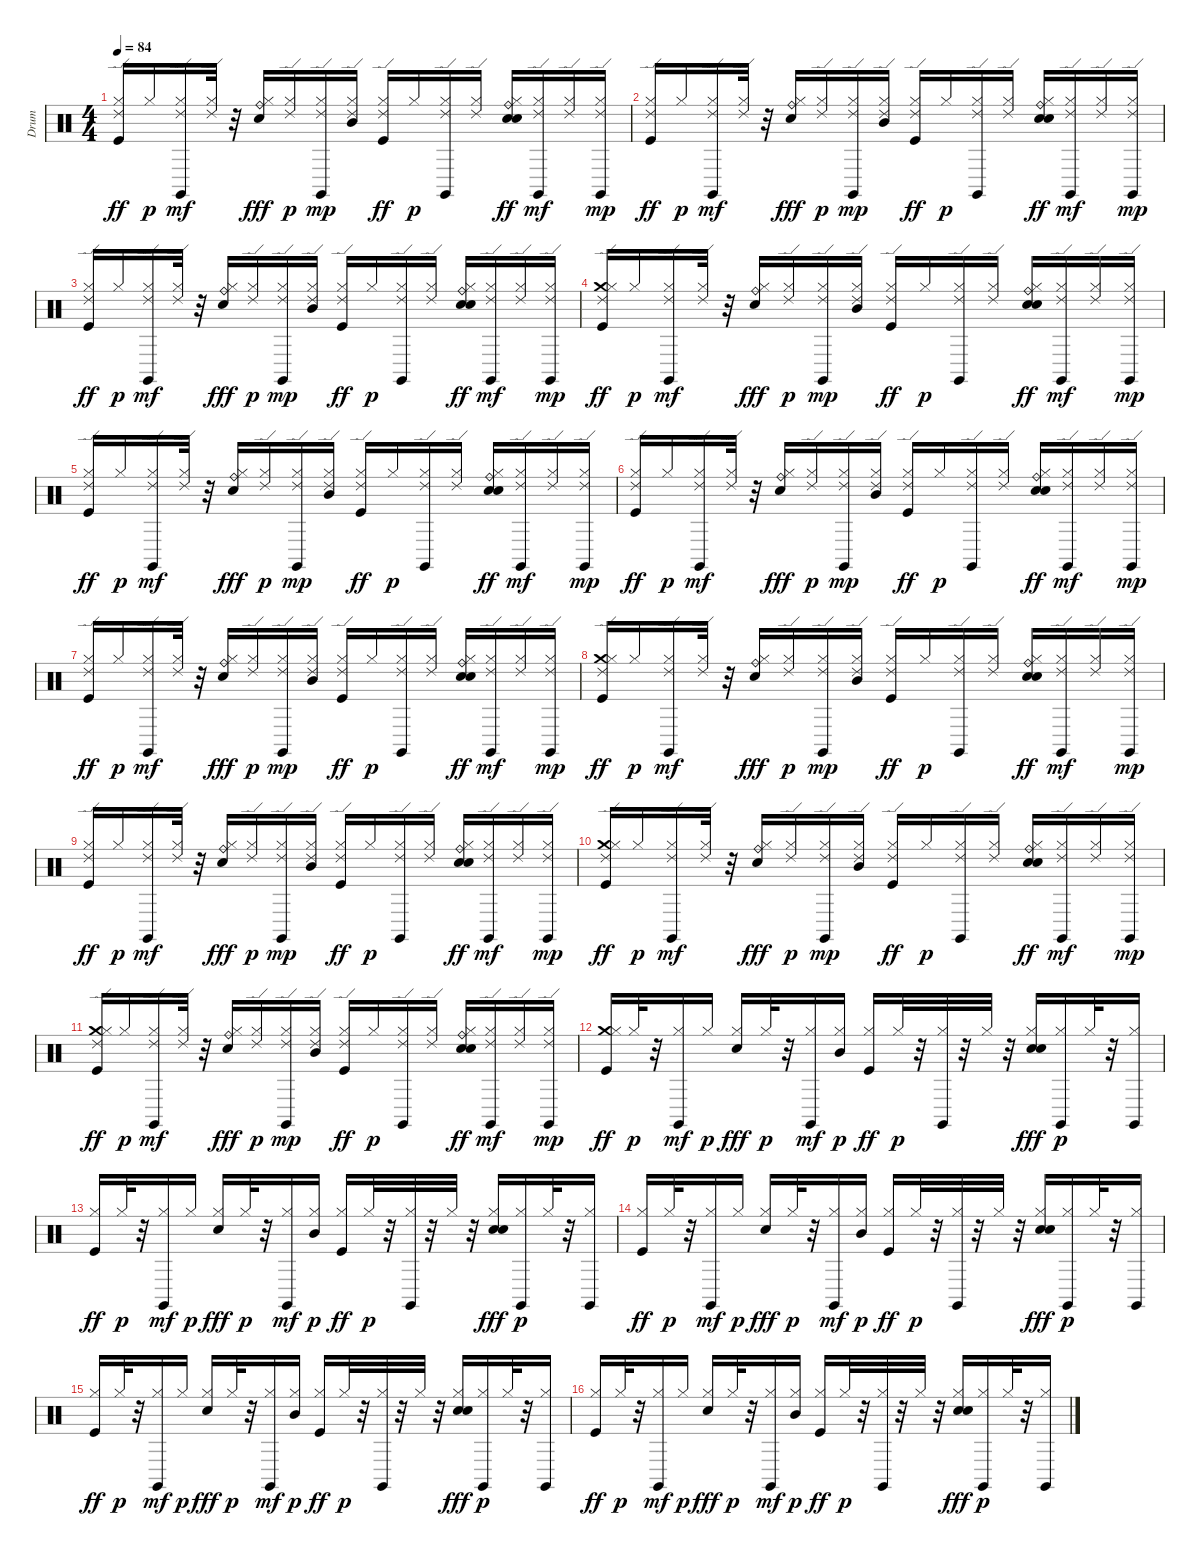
\track ("Drum" "Drum") {instrument percussion}
\staff {score}
\articulation defaults
\ts (4 4)
\tempo 84
\clef neutral
\ks c
("Kick (hit)" "Hi-Hat (closed)" "Ride (edge) 2").16{dy ff} "Hi-Hat (closed)".16{dy p} ("Hi-Hat (closed)" "Claves (hit)" "Ride (edge) 2").16{dy mf} ("Hi-Hat (closed)" "Ride (edge) 2").32 r.32 ("Hi-Hat (closed)" "Snare (hit) 2" "Ride (bell)").16{dy fff} ("Hi-Hat (closed)" "Ride (edge) 2").16{dy p} ("Hi-Hat (closed)" "Claves (hit)" "Ride (edge) 2").16{dy mp} ("Hi-Hat (closed)" "Mid Tom (hit)" "Ride (edge) 2").16 ("Kick (hit)" "Hi-Hat (closed)" "Ride (edge) 2").16{dy ff} "Hi-Hat (closed)".16{dy p} ("Hi-Hat (closed)" "Claves (hit)" "Ride (edge) 2").16 ("Hi-Hat (closed)" "Ride (edge) 2").16 ("Hi-Hat (closed)" "Snare (hit) 2" "Hand Clap (hit)" "Ride (bell)").16{dy ff} ("Hi-Hat (closed)" "Claves (hit)" "Ride (edge) 2").16{dy mf} ("Hi-Hat (closed)" "Ride (edge) 2").16 ("Hi-Hat (closed)" "Claves (hit)" "Ride (edge) 2").16{dy mp} |
("Kick (hit)" "Hi-Hat (closed)" "Ride (edge) 2").16{dy ff} "Hi-Hat (closed)".16{dy p} ("Hi-Hat (closed)" "Claves (hit)" "Ride (edge) 2").16{dy mf} ("Hi-Hat (closed)" "Ride (edge) 2").32 r.32 ("Hi-Hat (closed)" "Snare (hit) 2" "Ride (bell)").16{dy fff} ("Hi-Hat (closed)" "Ride (edge) 2").16{dy p} ("Hi-Hat (closed)" "Claves (hit)" "Ride (edge) 2").16{dy mp} ("Hi-Hat (closed)" "Mid Tom (hit)" "Ride (edge) 2").16 ("Kick (hit)" "Hi-Hat (closed)" "Ride (edge) 2").16{dy ff} "Hi-Hat (closed)".16{dy p} ("Hi-Hat (closed)" "Claves (hit)" "Ride (edge) 2").16 ("Hi-Hat (closed)" "Ride (edge) 2").16 ("Hi-Hat (closed)" "Snare (hit) 2" "Hand Clap (hit)" "Ride (bell)").16{dy ff} ("Hi-Hat (closed)" "Claves (hit)" "Ride (edge) 2").16{dy mf} ("Hi-Hat (closed)" "Ride (edge) 2").16 ("Hi-Hat (closed)" "Claves (hit)" "Ride (edge) 2").16{dy mp} |
("Kick (hit)" "Hi-Hat (closed)" "Ride (edge) 2").16{dy ff} "Hi-Hat (closed)".16{dy p} ("Hi-Hat (closed)" "Claves (hit)" "Ride (edge) 2").16{dy mf} ("Hi-Hat (closed)" "Ride (edge) 2").32 r.32 ("Hi-Hat (closed)" "Snare (hit) 2" "Ride (bell)").16{dy fff} ("Hi-Hat (closed)" "Ride (edge) 2").16{dy p} ("Hi-Hat (closed)" "Claves (hit)" "Ride (edge) 2").16{dy mp} ("Hi-Hat (closed)" "Mid Tom (hit)" "Ride (edge) 2").16 ("Kick (hit)" "Hi-Hat (closed)" "Ride (edge) 2").16{dy ff} "Hi-Hat (closed)".16{dy p} ("Hi-Hat (closed)" "Claves (hit)" "Ride (edge) 2").16 ("Hi-Hat (closed)" "Ride (edge) 2").16 ("Hi-Hat (closed)" "Snare (hit) 2" "Hand Clap (hit)" "Ride (bell)").16{dy ff} ("Hi-Hat (closed)" "Claves (hit)" "Ride (edge) 2").16{dy mf} ("Hi-Hat (closed)" "Ride (edge) 2").16 ("Hi-Hat (closed)" "Claves (hit)" "Ride (edge) 2").16{dy mp} |
("Crash medium (hit)" "Kick (hit)" "Hi-Hat (closed)" "Ride (edge) 2").16{dy ff} "Hi-Hat (closed)".16{dy p} ("Hi-Hat (closed)" "Claves (hit)" "Ride (edge) 2").16{dy mf} ("Hi-Hat (closed)" "Ride (edge) 2").32 r.32 ("Hi-Hat (closed)" "Snare (hit) 2" "Ride (bell)").16{dy fff} ("Hi-Hat (closed)" "Ride (edge) 2").16{dy p} ("Hi-Hat (closed)" "Claves (hit)" "Ride (edge) 2").16{dy mp} ("Hi-Hat (closed)" "Mid Tom (hit)" "Ride (edge) 2").16 ("Kick (hit)" "Hi-Hat (closed)" "Ride (edge) 2").16{dy ff} "Hi-Hat (closed)".16{dy p} ("Hi-Hat (closed)" "Claves (hit)" "Ride (edge) 2").16 ("Hi-Hat (closed)" "Ride (edge) 2").16 ("Hi-Hat (closed)" "Snare (hit) 2" "Hand Clap (hit)" "Ride (bell)").16{dy ff} ("Hi-Hat (closed)" "Claves (hit)" "Ride (edge) 2").16{dy mf} ("Hi-Hat (closed)" "Ride (edge) 2").16 ("Hi-Hat (closed)" "Claves (hit)" "Ride (edge) 2").16{dy mp} |
("Kick (hit)" "Hi-Hat (closed)" "Ride (edge) 2").16{dy ff} "Hi-Hat (closed)".16{dy p} ("Hi-Hat (closed)" "Claves (hit)" "Ride (edge) 2").16{dy mf} ("Hi-Hat (closed)" "Ride (edge) 2").32 r.32 ("Hi-Hat (closed)" "Snare (hit) 2" "Ride (bell)").16{dy fff} ("Hi-Hat (closed)" "Ride (edge) 2").16{dy p} ("Hi-Hat (closed)" "Claves (hit)" "Ride (edge) 2").16{dy mp} ("Hi-Hat (closed)" "Mid Tom (hit)" "Ride (edge) 2").16 ("Kick (hit)" "Hi-Hat (closed)" "Ride (edge) 2").16{dy ff} "Hi-Hat (closed)".16{dy p} ("Hi-Hat (closed)" "Claves (hit)" "Ride (edge) 2").16 ("Hi-Hat (closed)" "Ride (edge) 2").16 ("Hi-Hat (closed)" "Snare (hit) 2" "Hand Clap (hit)" "Ride (bell)").16{dy ff} ("Hi-Hat (closed)" "Claves (hit)" "Ride (edge) 2").16{dy mf} ("Hi-Hat (closed)" "Ride (edge) 2").16 ("Hi-Hat (closed)" "Claves (hit)" "Ride (edge) 2").16{dy mp} |
("Kick (hit)" "Hi-Hat (closed)" "Ride (edge) 2").16{dy ff} "Hi-Hat (closed)".16{dy p} ("Hi-Hat (closed)" "Claves (hit)" "Ride (edge) 2").16{dy mf} ("Hi-Hat (closed)" "Ride (edge) 2").32 r.32 ("Hi-Hat (closed)" "Snare (hit) 2" "Ride (bell)").16{dy fff} ("Hi-Hat (closed)" "Ride (edge) 2").16{dy p} ("Hi-Hat (closed)" "Claves (hit)" "Ride (edge) 2").16{dy mp} ("Hi-Hat (closed)" "Mid Tom (hit)" "Ride (edge) 2").16 ("Kick (hit)" "Hi-Hat (closed)" "Ride (edge) 2").16{dy ff} "Hi-Hat (closed)".16{dy p} ("Hi-Hat (closed)" "Claves (hit)" "Ride (edge) 2").16 ("Hi-Hat (closed)" "Ride (edge) 2").16 ("Hi-Hat (closed)" "Snare (hit) 2" "Hand Clap (hit)" "Ride (bell)").16{dy ff} ("Hi-Hat (closed)" "Claves (hit)" "Ride (edge) 2").16{dy mf} ("Hi-Hat (closed)" "Ride (edge) 2").16 ("Hi-Hat (closed)" "Claves (hit)" "Ride (edge) 2").16{dy mp} |
("Kick (hit)" "Hi-Hat (closed)" "Ride (edge) 2").16{dy ff} "Hi-Hat (closed)".16{dy p} ("Hi-Hat (closed)" "Claves (hit)" "Ride (edge) 2").16{dy mf} ("Hi-Hat (closed)" "Ride (edge) 2").32 r.32 ("Hi-Hat (closed)" "Snare (hit) 2" "Ride (bell)").16{dy fff} ("Hi-Hat (closed)" "Ride (edge) 2").16{dy p} ("Hi-Hat (closed)" "Claves (hit)" "Ride (edge) 2").16{dy mp} ("Hi-Hat (closed)" "Mid Tom (hit)" "Ride (edge) 2").16 ("Kick (hit)" "Hi-Hat (closed)" "Ride (edge) 2").16{dy ff} "Hi-Hat (closed)".16{dy p} ("Hi-Hat (closed)" "Claves (hit)" "Ride (edge) 2").16 ("Hi-Hat (closed)" "Ride (edge) 2").16 ("Hi-Hat (closed)" "Snare (hit) 2" "Hand Clap (hit)" "Ride (bell)").16{dy ff} ("Hi-Hat (closed)" "Claves (hit)" "Ride (edge) 2").16{dy mf} ("Hi-Hat (closed)" "Ride (edge) 2").16 ("Hi-Hat (closed)" "Claves (hit)" "Ride (edge) 2").16{dy mp} |
("Crash medium (hit)" "Kick (hit)" "Hi-Hat (closed)" "Ride (edge) 2").16{dy ff} "Hi-Hat (closed)".16{dy p} ("Hi-Hat (closed)" "Claves (hit)" "Ride (edge) 2").16{dy mf} ("Hi-Hat (closed)" "Ride (edge) 2").32 r.32 ("Hi-Hat (closed)" "Snare (hit) 2" "Ride (bell)").16{dy fff} ("Hi-Hat (closed)" "Ride (edge) 2").16{dy p} ("Hi-Hat (closed)" "Claves (hit)" "Ride (edge) 2").16{dy mp} ("Hi-Hat (closed)" "Mid Tom (hit)" "Ride (edge) 2").16 ("Kick (hit)" "Hi-Hat (closed)" "Ride (edge) 2").16{dy ff} "Hi-Hat (closed)".16{dy p} ("Hi-Hat (closed)" "Claves (hit)" "Ride (edge) 2").16 ("Hi-Hat (closed)" "Ride (edge) 2").16 ("Hi-Hat (closed)" "Snare (hit) 2" "Hand Clap (hit)" "Ride (bell)").16{dy ff} ("Hi-Hat (closed)" "Claves (hit)" "Ride (edge) 2").16{dy mf} ("Hi-Hat (closed)" "Ride (edge) 2").16 ("Hi-Hat (closed)" "Claves (hit)" "Ride (edge) 2").16{dy mp} |
("Kick (hit)" "Hi-Hat (closed)" "Ride (edge) 2").16{dy ff} "Hi-Hat (closed)".16{dy p} ("Hi-Hat (closed)" "Claves (hit)" "Ride (edge) 2").16{dy mf} ("Hi-Hat (closed)" "Ride (edge) 2").32 r.32 ("Hi-Hat (closed)" "Snare (hit) 2" "Ride (bell)").16{dy fff} ("Hi-Hat (closed)" "Ride (edge) 2").16{dy p} ("Hi-Hat (closed)" "Claves (hit)" "Ride (edge) 2").16{dy mp} ("Hi-Hat (closed)" "Mid Tom (hit)" "Ride (edge) 2").16 ("Kick (hit)" "Hi-Hat (closed)" "Ride (edge) 2").16{dy ff} "Hi-Hat (closed)".16{dy p} ("Hi-Hat (closed)" "Claves (hit)" "Ride (edge) 2").16 ("Hi-Hat (closed)" "Ride (edge) 2").16 ("Hi-Hat (closed)" "Snare (hit) 2" "Hand Clap (hit)" "Ride (bell)").16{dy ff} ("Hi-Hat (closed)" "Claves (hit)" "Ride (edge) 2").16{dy mf} ("Hi-Hat (closed)" "Ride (edge) 2").16 ("Hi-Hat (closed)" "Claves (hit)" "Ride (edge) 2").16{dy mp} |
("Crash medium (hit)" "Kick (hit)" "Hi-Hat (closed)" "Ride (edge) 2").16{dy ff} "Hi-Hat (closed)".16{dy p} ("Hi-Hat (closed)" "Claves (hit)" "Ride (edge) 2").16{dy mf} ("Hi-Hat (closed)" "Ride (edge) 2").32 r.32 ("Hi-Hat (closed)" "Snare (hit) 2" "Ride (bell)").16{dy fff} ("Hi-Hat (closed)" "Ride (edge) 2").16{dy p} ("Hi-Hat (closed)" "Claves (hit)" "Ride (edge) 2").16{dy mp} ("Hi-Hat (closed)" "Mid Tom (hit)" "Ride (edge) 2").16 ("Kick (hit)" "Hi-Hat (closed)" "Ride (edge) 2").16{dy ff} "Hi-Hat (closed)".16{dy p} ("Hi-Hat (closed)" "Claves (hit)" "Ride (edge) 2").16 ("Hi-Hat (closed)" "Ride (edge) 2").16 ("Hi-Hat (closed)" "Snare (hit) 2" "Hand Clap (hit)" "Ride (bell)").16{dy ff} ("Hi-Hat (closed)" "Claves (hit)" "Ride (edge) 2").16{dy mf} ("Hi-Hat (closed)" "Ride (edge) 2").16 ("Hi-Hat (closed)" "Claves (hit)" "Ride (edge) 2").16{dy mp} |
("Crash medium (hit)" "Kick (hit)" "Hi-Hat (closed)" "Ride (edge) 2").16{dy ff} "Hi-Hat (closed)".16{dy p} ("Hi-Hat (closed)" "Claves (hit)" "Ride (edge) 2").16{dy mf} ("Hi-Hat (closed)" "Ride (edge) 2").32 r.32 ("Hi-Hat (closed)" "Snare (hit) 2" "Ride (bell)").16{dy fff} ("Hi-Hat (closed)" "Ride (edge) 2").16{dy p} ("Hi-Hat (closed)" "Claves (hit)" "Ride (edge) 2").16{dy mp} ("Hi-Hat (closed)" "Mid Tom (hit)" "Ride (edge) 2").16 ("Kick (hit)" "Hi-Hat (closed)" "Ride (edge) 2").16{dy ff} "Hi-Hat (closed)".16{dy p} ("Hi-Hat (closed)" "Claves (hit)" "Ride (edge) 2").16 ("Hi-Hat (closed)" "Ride (edge) 2").16 ("Hi-Hat (closed)" "Snare (hit) 2" "Hand Clap (hit)" "Ride (bell)").16{dy ff} ("Hi-Hat (closed)" "Claves (hit)" "Ride (edge) 2").16{dy mf} ("Hi-Hat (closed)" "Ride (edge) 2").16 ("Hi-Hat (closed)" "Claves (hit)" "Ride (edge) 2").16{dy mp} |
("Crash medium (hit)" "Kick (hit)" "Hi-Hat (closed)").16{dy ff} "Hi-Hat (closed)".32{dy p} r.32 ("Hi-Hat (closed)" "Claves (hit)").16{dy mf} "Hi-Hat (closed)".16{dy p} ("Hi-Hat (closed)" "Snare (hit) 2").16{dy fff} "Hi-Hat (closed)".32{dy p} r.32 ("Hi-Hat (closed)" "Claves (hit)").16{dy mf} ("Hi-Hat (closed)" "Mid Tom (hit)").16{dy p} ("Kick (hit)" "Hi-Hat (closed)").16{dy ff} "Hi-Hat (closed)".32{dy p} r.32 ("Hi-Hat (closed)" "Claves (hit)").32 r.32 "Hi-Hat (closed)".32 r.32 ("Hi-Hat (closed)" "Snare (hit) 2" "Hand Clap (hit)").16{dy fff} ("Hi-Hat (closed)" "Claves (hit)").16{dy p} "Hi-Hat (closed)".32 r.32 ("Hi-Hat (closed)" "Claves (hit)").16 |
("Kick (hit)" "Hi-Hat (closed)").16{dy ff} "Hi-Hat (closed)".32{dy p} r.32 ("Hi-Hat (closed)" "Claves (hit)").16{dy mf} "Hi-Hat (closed)".16{dy p} ("Hi-Hat (closed)" "Snare (hit) 2").16{dy fff} "Hi-Hat (closed)".32{dy p} r.32 ("Hi-Hat (closed)" "Claves (hit)").16{dy mf} ("Hi-Hat (closed)" "Mid Tom (hit)").16{dy p} ("Kick (hit)" "Hi-Hat (closed)").16{dy ff} "Hi-Hat (closed)".32{dy p} r.32 ("Hi-Hat (closed)" "Claves (hit)").32 r.32 "Hi-Hat (closed)".32 r.32 ("Hi-Hat (closed)" "Snare (hit) 2" "Hand Clap (hit)").16{dy fff} ("Hi-Hat (closed)" "Claves (hit)").16{dy p} "Hi-Hat (closed)".32 r.32 ("Hi-Hat (closed)" "Claves (hit)").16 |
("Kick (hit)" "Hi-Hat (closed)").16{dy ff} "Hi-Hat (closed)".32{dy p} r.32 ("Hi-Hat (closed)" "Claves (hit)").16{dy mf} "Hi-Hat (closed)".16{dy p} ("Hi-Hat (closed)" "Snare (hit) 2").16{dy fff} "Hi-Hat (closed)".32{dy p} r.32 ("Hi-Hat (closed)" "Claves (hit)").16{dy mf} ("Hi-Hat (closed)" "Mid Tom (hit)").16{dy p} ("Kick (hit)" "Hi-Hat (closed)").16{dy ff} "Hi-Hat (closed)".32{dy p} r.32 ("Hi-Hat (closed)" "Claves (hit)").32 r.32 "Hi-Hat (closed)".32 r.32 ("Hi-Hat (closed)" "Snare (hit) 2" "Hand Clap (hit)").16{dy fff} ("Hi-Hat (closed)" "Claves (hit)").16{dy p} "Hi-Hat (closed)".32 r.32 ("Hi-Hat (closed)" "Claves (hit)").16 |
("Kick (hit)" "Hi-Hat (closed)").16{dy ff} "Hi-Hat (closed)".32{dy p} r.32 ("Hi-Hat (closed)" "Claves (hit)").16{dy mf} "Hi-Hat (closed)".16{dy p} ("Hi-Hat (closed)" "Snare (hit) 2").16{dy fff} "Hi-Hat (closed)".32{dy p} r.32 ("Hi-Hat (closed)" "Claves (hit)").16{dy mf} ("Hi-Hat (closed)" "Mid Tom (hit)").16{dy p} ("Kick (hit)" "Hi-Hat (closed)").16{dy ff} "Hi-Hat (closed)".32{dy p} r.32 ("Hi-Hat (closed)" "Claves (hit)").32 r.32 "Hi-Hat (closed)".32 r.32 ("Hi-Hat (closed)" "Snare (hit) 2" "Hand Clap (hit)").16{dy fff} ("Hi-Hat (closed)" "Claves (hit)").16{dy p} "Hi-Hat (closed)".32 r.32 ("Hi-Hat (closed)" "Claves (hit)").16 |
("Kick (hit)" "Hi-Hat (closed)").16{dy ff} "Hi-Hat (closed)".32{dy p} r.32 ("Hi-Hat (closed)" "Claves (hit)").16{dy mf} "Hi-Hat (closed)".16{dy p} ("Hi-Hat (closed)" "Snare (hit) 2").16{dy fff} "Hi-Hat (closed)".32{dy p} r.32 ("Hi-Hat (closed)" "Claves (hit)").16{dy mf} ("Hi-Hat (closed)" "Mid Tom (hit)").16{dy p} ("Kick (hit)" "Hi-Hat (closed)").16{dy ff} "Hi-Hat (closed)".32{dy p} r.32 ("Hi-Hat (closed)" "Claves (hit)").32 r.32 "Hi-Hat (closed)".32 r.32 ("Hi-Hat (closed)" "Snare (hit) 2" "Hand Clap (hit)").16{dy fff} ("Hi-Hat (closed)" "Claves (hit)").16{dy p} "Hi-Hat (closed)".32 r.32 ("Hi-Hat (closed)" "Claves (hit)").16
